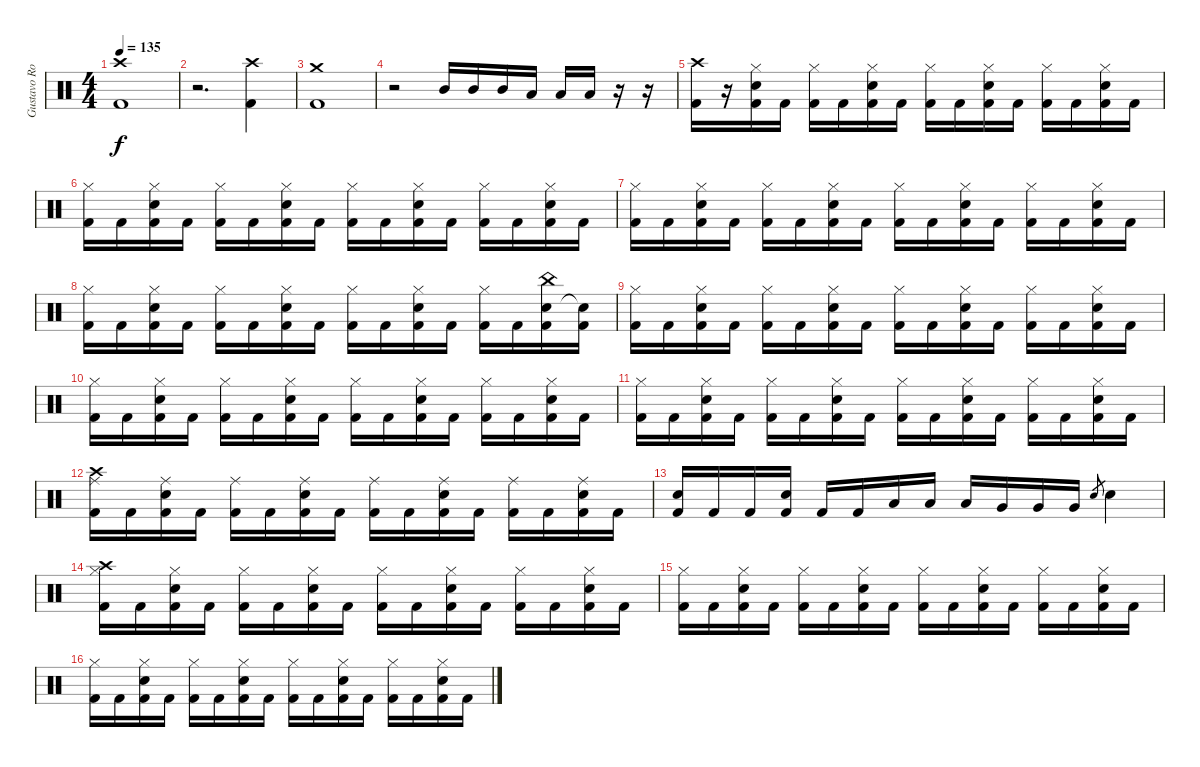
\track ("Gustavo Rowek" "Gustavo Ro") {instrument percussion}
\staff {score}
\articulation defaults
\ts (4 4)
\tempo 135
\clef neutral
\ks c
("Kick (hit) 2" "Crash high (hit)").1{dy f} |
r.2{d} ("Kick (hit) 2" "Crash high (hit)").4 |
("Kick (hit) 2" "Crash medium (hit)").1 |
r.2 "Mid Tom (hit)".16 "Mid Tom (hit)".16 "Mid Tom (hit)".16 "Low Tom (hit)".16 "Low Tom (hit)".16 "Low Tom (hit)".16 r.16 r.16 |
("Kick (hit) 2" "Crash high (hit)").16 r.16 ("Kick (hit) 2" "Hi-Hat (closed)" "Electric Snare (hit)").16 "Kick (hit) 2".16 ("Kick (hit) 2" "Hi-Hat (closed)").16 "Kick (hit) 2".16 ("Kick (hit) 2" "Hi-Hat (closed)" "Electric Snare (hit)").16 "Kick (hit) 2".16 ("Kick (hit) 2" "Hi-Hat (closed)").16 "Kick (hit) 2".16 ("Kick (hit) 2" "Hi-Hat (closed)" "Electric Snare (hit)").16 "Kick (hit) 2".16 ("Kick (hit) 2" "Hi-Hat (closed)").16 "Kick (hit) 2".16 ("Kick (hit) 2" "Hi-Hat (closed)" "Electric Snare (hit)").16 "Kick (hit) 2".16 |
("Kick (hit) 2" "Hi-Hat (closed)").16 "Kick (hit) 2".16 ("Kick (hit) 2" "Hi-Hat (closed)" "Electric Snare (hit)").16 "Kick (hit) 2".16 ("Kick (hit) 2" "Hi-Hat (closed)").16 "Kick (hit) 2".16 ("Kick (hit) 2" "Hi-Hat (closed)" "Electric Snare (hit)").16 "Kick (hit) 2".16 ("Kick (hit) 2" "Hi-Hat (closed)").16 "Kick (hit) 2".16 ("Kick (hit) 2" "Hi-Hat (closed)" "Electric Snare (hit)").16 "Kick (hit) 2".16 ("Kick (hit) 2" "Hi-Hat (closed)").16 "Kick (hit) 2".16 ("Kick (hit) 2" "Hi-Hat (closed)" "Electric Snare (hit)").16 "Kick (hit) 2".16 |
("Kick (hit) 2" "Hi-Hat (closed)").16 "Kick (hit) 2".16 ("Kick (hit) 2" "Hi-Hat (closed)" "Electric Snare (hit)").16 "Kick (hit) 2".16 ("Kick (hit) 2" "Hi-Hat (closed)").16 "Kick (hit) 2".16 ("Kick (hit) 2" "Hi-Hat (closed)" "Electric Snare (hit)").16 "Kick (hit) 2".16 ("Kick (hit) 2" "Hi-Hat (closed)").16 "Kick (hit) 2".16 ("Kick (hit) 2" "Hi-Hat (closed)" "Electric Snare (hit)").16 "Kick (hit) 2".16 ("Kick (hit) 2" "Hi-Hat (closed)").16 "Kick (hit) 2".16 ("Kick (hit) 2" "Hi-Hat (closed)" "Electric Snare (hit)").16 "Kick (hit) 2".16 |
("Kick (hit) 2" "Hi-Hat (closed)").16 "Kick (hit) 2".16 ("Kick (hit) 2" "Hi-Hat (closed)" "Electric Snare (hit)").16 "Kick (hit) 2".16 ("Kick (hit) 2" "Hi-Hat (closed)").16 "Kick (hit) 2".16 ("Kick (hit) 2" "Hi-Hat (closed)" "Electric Snare (hit)").16 "Kick (hit) 2".16 ("Kick (hit) 2" "Hi-Hat (closed)").16 "Kick (hit) 2".16 ("Kick (hit) 2" "Hi-Hat (closed)" "Electric Snare (hit)").16 "Kick (hit) 2".16 ("Kick (hit) 2" "Hi-Hat (closed)").16 "Kick (hit) 2".16 ("Kick (hit) 2" "Electric Snare (hit)" "China (hit)").16 ("Kick (hit) 2" "Snare (hit)"{t}).16 |
("Kick (hit) 2" "Hi-Hat (closed)").16 "Kick (hit) 2".16 ("Kick (hit) 2" "Hi-Hat (closed)" "Electric Snare (hit)").16 "Kick (hit) 2".16 ("Kick (hit) 2" "Hi-Hat (closed)").16 "Kick (hit) 2".16 ("Kick (hit) 2" "Hi-Hat (closed)" "Electric Snare (hit)").16 "Kick (hit) 2".16 ("Kick (hit) 2" "Hi-Hat (closed)").16 "Kick (hit) 2".16 ("Kick (hit) 2" "Hi-Hat (closed)" "Electric Snare (hit)").16 "Kick (hit) 2".16 ("Kick (hit) 2" "Hi-Hat (closed)").16 "Kick (hit) 2".16 ("Kick (hit) 2" "Hi-Hat (closed)" "Electric Snare (hit)").16 "Kick (hit) 2".16 |
("Kick (hit) 2" "Hi-Hat (closed)").16 "Kick (hit) 2".16 ("Kick (hit) 2" "Hi-Hat (closed)" "Electric Snare (hit)").16 "Kick (hit) 2".16 ("Kick (hit) 2" "Hi-Hat (closed)").16 "Kick (hit) 2".16 ("Kick (hit) 2" "Hi-Hat (closed)" "Electric Snare (hit)").16 "Kick (hit) 2".16 ("Kick (hit) 2" "Hi-Hat (closed)").16 "Kick (hit) 2".16 ("Kick (hit) 2" "Hi-Hat (closed)" "Electric Snare (hit)").16 "Kick (hit) 2".16 ("Kick (hit) 2" "Hi-Hat (closed)").16 "Kick (hit) 2".16 ("Kick (hit) 2" "Hi-Hat (closed)" "Electric Snare (hit)").16 "Kick (hit) 2".16 |
("Kick (hit) 2" "Hi-Hat (closed)").16 "Kick (hit) 2".16 ("Kick (hit) 2" "Hi-Hat (closed)" "Electric Snare (hit)").16 "Kick (hit) 2".16 ("Kick (hit) 2" "Hi-Hat (closed)").16 "Kick (hit) 2".16 ("Kick (hit) 2" "Hi-Hat (closed)" "Electric Snare (hit)").16 "Kick (hit) 2".16 ("Kick (hit) 2" "Hi-Hat (closed)").16 "Kick (hit) 2".16 ("Kick (hit) 2" "Hi-Hat (closed)" "Electric Snare (hit)").16 "Kick (hit) 2".16 ("Kick (hit) 2" "Hi-Hat (closed)").16 "Kick (hit) 2".16 ("Kick (hit) 2" "Hi-Hat (closed)" "Electric Snare (hit)").16 "Kick (hit) 2".16 |
("Kick (hit) 2" "Ride (middle)" "Crash high (hit)").16 "Kick (hit) 2".16 ("Kick (hit) 2" "Ride (middle)" "Electric Snare (hit)").16 "Kick (hit) 2".16 ("Kick (hit) 2" "Ride (middle)").16 "Kick (hit) 2".16 ("Kick (hit) 2" "Ride (middle)" "Electric Snare (hit)").16 "Kick (hit) 2".16 ("Kick (hit) 2" "Ride (middle)").16 "Kick (hit) 2".16 ("Kick (hit) 2" "Ride (middle)" "Electric Snare (hit)").16 "Kick (hit) 2".16 ("Kick (hit) 2" "Ride (middle)").16 "Kick (hit) 2".16 ("Kick (hit) 2" "Ride (middle)" "Electric Snare (hit)").16 "Kick (hit) 2".16 |
("Kick (hit) 2" "Electric Snare (hit)").16 "Kick (hit) 2".16 "Kick (hit) 2".16 ("Kick (hit) 2" "Electric Snare (hit)").16 "Kick (hit) 2".16 "Kick (hit) 2".16 "Low Tom (hit)".16 "Low Tom (hit)".16 "Low Tom (hit)".16 "Very Low Tom (hit)".16 "Very Low Tom (hit)".16 "Very Low Tom (hit)".16 "Electric Snare (hit)".8{gr} "Electric Snare (hit)".4 |
("Kick (hit) 2" "Hi-Hat (closed)" "Crash high (hit)").16 "Kick (hit) 2".16 ("Kick (hit) 2" "Hi-Hat (closed)" "Electric Snare (hit)").16 "Kick (hit) 2".16 ("Kick (hit) 2" "Hi-Hat (closed)").16 "Kick (hit) 2".16 ("Kick (hit) 2" "Hi-Hat (closed)" "Electric Snare (hit)").16 "Kick (hit) 2".16 ("Kick (hit) 2" "Hi-Hat (closed)").16 "Kick (hit) 2".16 ("Kick (hit) 2" "Hi-Hat (closed)" "Electric Snare (hit)").16 "Kick (hit) 2".16 ("Kick (hit) 2" "Hi-Hat (closed)").16 "Kick (hit) 2".16 ("Kick (hit) 2" "Hi-Hat (closed)" "Electric Snare (hit)").16 "Kick (hit) 2".16 |
("Kick (hit) 2" "Hi-Hat (closed)").16 "Kick (hit) 2".16 ("Kick (hit) 2" "Hi-Hat (closed)" "Electric Snare (hit)").16 "Kick (hit) 2".16 ("Kick (hit) 2" "Hi-Hat (closed)").16 "Kick (hit) 2".16 ("Kick (hit) 2" "Hi-Hat (closed)" "Electric Snare (hit)").16 "Kick (hit) 2".16 ("Kick (hit) 2" "Hi-Hat (closed)").16 "Kick (hit) 2".16 ("Kick (hit) 2" "Hi-Hat (closed)" "Electric Snare (hit)").16 "Kick (hit) 2".16 ("Kick (hit) 2" "Hi-Hat (closed)").16 "Kick (hit) 2".16 ("Kick (hit) 2" "Hi-Hat (closed)" "Electric Snare (hit)").16 "Kick (hit) 2".16 |
("Kick (hit) 2" "Hi-Hat (closed)").16 "Kick (hit) 2".16 ("Kick (hit) 2" "Hi-Hat (closed)" "Electric Snare (hit)").16 "Kick (hit) 2".16 ("Kick (hit) 2" "Hi-Hat (closed)").16 "Kick (hit) 2".16 ("Kick (hit) 2" "Hi-Hat (closed)" "Electric Snare (hit)").16 "Kick (hit) 2".16 ("Kick (hit) 2" "Hi-Hat (closed)").16 "Kick (hit) 2".16 ("Kick (hit) 2" "Hi-Hat (closed)" "Electric Snare (hit)").16 "Kick (hit) 2".16 ("Kick (hit) 2" "Hi-Hat (closed)").16 "Kick (hit) 2".16 ("Kick (hit) 2" "Hi-Hat (closed)" "Electric Snare (hit)").16 "Kick (hit) 2".16
